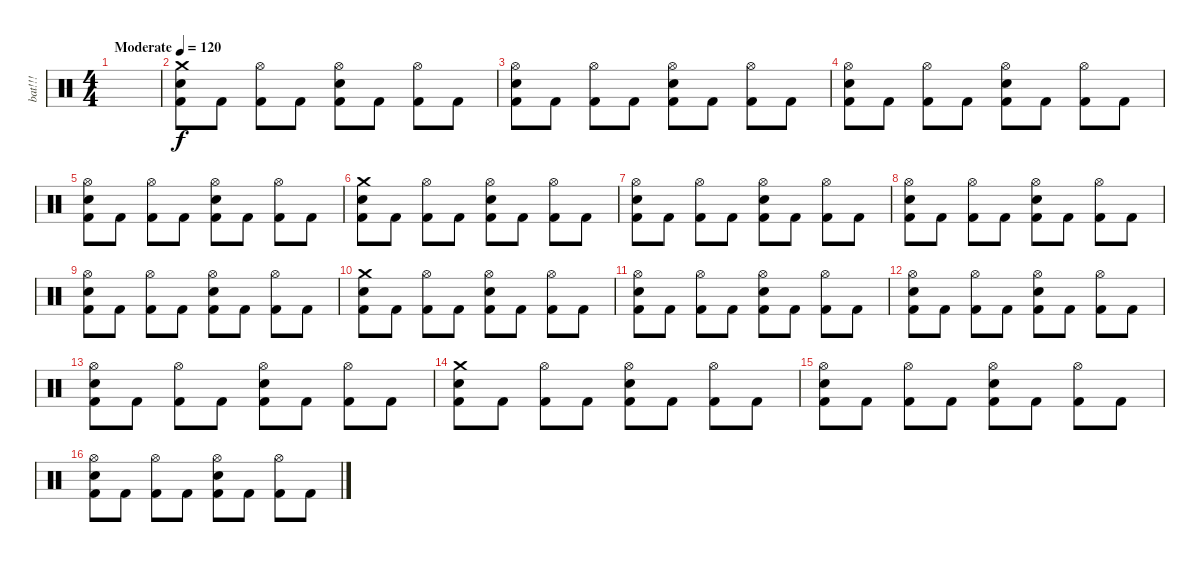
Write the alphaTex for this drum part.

\track ("bat!!!" "bat!!!") {instrument percussion}
\staff {score}
\articulation defaults
\ts (4 4)
\tempo (120 "Moderate")
\tempo 170
\tempo (120 "Moderate")
\clef neutral
\ks c
|
("Crash medium (hit)" "Snare (hit) 2" "Kick (hit) 2").8 "Kick (hit) 2".8 ("Hi-Hat (open)" "Kick (hit) 2").8 "Kick (hit) 2".8 ("Hi-Hat (open)" "Snare (hit) 2" "Kick (hit) 2").8 "Kick (hit) 2".8 ("Hi-Hat (open)" "Kick (hit) 2").8 "Kick (hit) 2".8 |
("Hi-Hat (open)" "Snare (hit) 2" "Kick (hit) 2").8 "Kick (hit) 2".8 ("Hi-Hat (open)" "Kick (hit) 2").8 "Kick (hit) 2".8 ("Hi-Hat (open)" "Snare (hit) 2" "Kick (hit) 2").8 "Kick (hit) 2".8 ("Hi-Hat (open)" "Kick (hit) 2").8 "Kick (hit) 2".8 |
("Hi-Hat (open)" "Snare (hit) 2" "Kick (hit) 2").8 "Kick (hit) 2".8 ("Hi-Hat (open)" "Kick (hit) 2").8 "Kick (hit) 2".8 ("Hi-Hat (open)" "Snare (hit) 2" "Kick (hit) 2").8 "Kick (hit) 2".8 ("Hi-Hat (open)" "Kick (hit) 2").8 "Kick (hit) 2".8 |
("Hi-Hat (open)" "Snare (hit) 2" "Kick (hit) 2").8 "Kick (hit) 2".8 ("Hi-Hat (open)" "Kick (hit) 2").8 "Kick (hit) 2".8 ("Hi-Hat (open)" "Snare (hit) 2" "Kick (hit) 2").8 "Kick (hit) 2".8 ("Hi-Hat (open)" "Kick (hit) 2").8 "Kick (hit) 2".8 |
("Crash medium (hit)" "Snare (hit) 2" "Kick (hit) 2").8 "Kick (hit) 2".8 ("Hi-Hat (open)" "Kick (hit) 2").8 "Kick (hit) 2".8 ("Hi-Hat (open)" "Snare (hit) 2" "Kick (hit) 2").8 "Kick (hit) 2".8 ("Hi-Hat (open)" "Kick (hit) 2").8 "Kick (hit) 2".8 |
("Hi-Hat (open)" "Snare (hit) 2" "Kick (hit) 2").8 "Kick (hit) 2".8 ("Hi-Hat (open)" "Kick (hit) 2").8 "Kick (hit) 2".8 ("Hi-Hat (open)" "Snare (hit) 2" "Kick (hit) 2").8 "Kick (hit) 2".8 ("Hi-Hat (open)" "Kick (hit) 2").8 "Kick (hit) 2".8 |
("Hi-Hat (open)" "Snare (hit) 2" "Kick (hit) 2").8 "Kick (hit) 2".8 ("Hi-Hat (open)" "Kick (hit) 2").8 "Kick (hit) 2".8 ("Hi-Hat (open)" "Snare (hit) 2" "Kick (hit) 2").8 "Kick (hit) 2".8 ("Hi-Hat (open)" "Kick (hit) 2").8 "Kick (hit) 2".8 |
("Hi-Hat (open)" "Snare (hit) 2" "Kick (hit) 2").8 "Kick (hit) 2".8 ("Hi-Hat (open)" "Kick (hit) 2").8 "Kick (hit) 2".8 ("Hi-Hat (open)" "Snare (hit) 2" "Kick (hit) 2").8 "Kick (hit) 2".8 ("Hi-Hat (open)" "Kick (hit) 2").8 "Kick (hit) 2".8 |
("Crash medium (hit)" "Snare (hit) 2" "Kick (hit) 2").8 "Kick (hit) 2".8 ("Hi-Hat (open)" "Kick (hit) 2").8 "Kick (hit) 2".8 ("Hi-Hat (open)" "Snare (hit) 2" "Kick (hit) 2").8 "Kick (hit) 2".8 ("Hi-Hat (open)" "Kick (hit) 2").8 "Kick (hit) 2".8 |
("Hi-Hat (open)" "Snare (hit) 2" "Kick (hit) 2").8 "Kick (hit) 2".8 ("Hi-Hat (open)" "Kick (hit) 2").8 "Kick (hit) 2".8 ("Hi-Hat (open)" "Snare (hit) 2" "Kick (hit) 2").8 "Kick (hit) 2".8 ("Hi-Hat (open)" "Kick (hit) 2").8 "Kick (hit) 2".8 |
("Hi-Hat (open)" "Snare (hit) 2" "Kick (hit) 2").8 "Kick (hit) 2".8 ("Hi-Hat (open)" "Kick (hit) 2").8 "Kick (hit) 2".8 ("Hi-Hat (open)" "Snare (hit) 2" "Kick (hit) 2").8 "Kick (hit) 2".8 ("Hi-Hat (open)" "Kick (hit) 2").8 "Kick (hit) 2".8 |
("Hi-Hat (open)" "Snare (hit) 2" "Kick (hit) 2").8 "Kick (hit) 2".8 ("Hi-Hat (open)" "Kick (hit) 2").8 "Kick (hit) 2".8 ("Hi-Hat (open)" "Snare (hit) 2" "Kick (hit) 2").8 "Kick (hit) 2".8 ("Hi-Hat (open)" "Kick (hit) 2").8 "Kick (hit) 2".8 |
("Crash medium (hit)" "Snare (hit) 2" "Kick (hit) 2").8 "Kick (hit) 2".8 ("Hi-Hat (open)" "Kick (hit) 2").8 "Kick (hit) 2".8 ("Hi-Hat (open)" "Snare (hit) 2" "Kick (hit) 2").8 "Kick (hit) 2".8 ("Hi-Hat (open)" "Kick (hit) 2").8 "Kick (hit) 2".8 |
("Hi-Hat (open)" "Snare (hit) 2" "Kick (hit) 2").8 "Kick (hit) 2".8 ("Hi-Hat (open)" "Kick (hit) 2").8 "Kick (hit) 2".8 ("Hi-Hat (open)" "Snare (hit) 2" "Kick (hit) 2").8 "Kick (hit) 2".8 ("Hi-Hat (open)" "Kick (hit) 2").8 "Kick (hit) 2".8 |
("Hi-Hat (open)" "Snare (hit) 2" "Kick (hit) 2").8 "Kick (hit) 2".8 ("Hi-Hat (open)" "Kick (hit) 2").8 "Kick (hit) 2".8 ("Hi-Hat (open)" "Snare (hit) 2" "Kick (hit) 2").8 "Kick (hit) 2".8 ("Hi-Hat (open)" "Kick (hit) 2").8 "Kick (hit) 2".8
